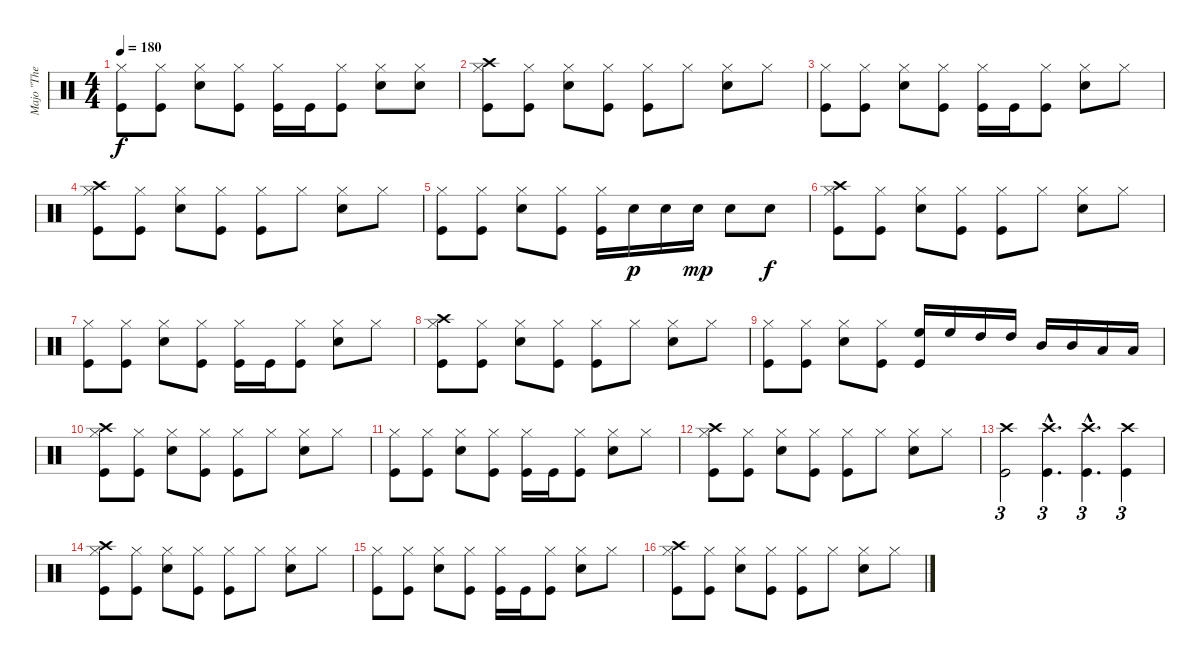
\track ("Majo \"The Dremmel\" Hirt" "Majo \"The ") {instrument percussion}
\staff {score}
\articulation defaults
\ts (4 4)
\tempo 180
\clef neutral
\ks c
("Hi-Hat (closed)" "Kick (hit)").8{dy f} ("Hi-Hat (closed)" "Kick (hit)").8 ("Hi-Hat (closed)" "Electric Snare (hit)").8 ("Hi-Hat (closed)" "Kick (hit)").8 ("Hi-Hat (closed)" "Kick (hit)").16 "Kick (hit)".16 ("Hi-Hat (closed)" "Kick (hit)").8 ("Hi-Hat (closed)" "Electric Snare (hit)").8 ("Hi-Hat (closed)" "Electric Snare (hit)").8 |
("Crash high (hit)" "Hi-Hat (closed)" "Kick (hit)").8 ("Hi-Hat (closed)" "Kick (hit)").8 ("Hi-Hat (closed)" "Electric Snare (hit)").8 ("Hi-Hat (closed)" "Kick (hit)").8 ("Hi-Hat (closed)" "Kick (hit)").8 "Hi-Hat (closed)".8 ("Hi-Hat (closed)" "Electric Snare (hit)").8 "Hi-Hat (closed)".8 |
("Hi-Hat (closed)" "Kick (hit)").8 ("Hi-Hat (closed)" "Kick (hit)").8 ("Hi-Hat (closed)" "Electric Snare (hit)").8 ("Hi-Hat (closed)" "Kick (hit)").8 ("Hi-Hat (closed)" "Kick (hit)").16 "Kick (hit)".16 ("Hi-Hat (closed)" "Kick (hit)").8 ("Hi-Hat (closed)" "Electric Snare (hit)").8 "Hi-Hat (closed)".8 |
("Crash high (hit)" "Hi-Hat (closed)" "Kick (hit)").8 ("Hi-Hat (closed)" "Kick (hit)").8 ("Hi-Hat (closed)" "Electric Snare (hit)").8 ("Hi-Hat (closed)" "Kick (hit)").8 ("Hi-Hat (closed)" "Kick (hit)").8 "Hi-Hat (closed)".8 ("Hi-Hat (closed)" "Electric Snare (hit)").8 "Hi-Hat (closed)".8 |
("Hi-Hat (closed)" "Kick (hit)").8 ("Hi-Hat (closed)" "Kick (hit)").8 ("Hi-Hat (closed)" "Electric Snare (hit)").8 ("Hi-Hat (closed)" "Kick (hit)").8 ("Hi-Hat (closed)" "Kick (hit)").16 "Electric Snare (hit)".16{dy p} "Electric Snare (hit)".16 "Electric Snare (hit)".16{dy mp} "Electric Snare (hit)".8 "Electric Snare (hit)".8{dy f} |
("Crash high (hit)" "Hi-Hat (closed)" "Kick (hit)").8 ("Hi-Hat (closed)" "Kick (hit)").8 ("Hi-Hat (closed)" "Electric Snare (hit)").8 ("Hi-Hat (closed)" "Kick (hit)").8 ("Hi-Hat (closed)" "Kick (hit)").8 "Hi-Hat (closed)".8 ("Hi-Hat (closed)" "Electric Snare (hit)").8 "Hi-Hat (closed)".8 |
("Hi-Hat (closed)" "Kick (hit)").8 ("Hi-Hat (closed)" "Kick (hit)").8 ("Hi-Hat (closed)" "Electric Snare (hit)").8 ("Hi-Hat (closed)" "Kick (hit)").8 ("Hi-Hat (closed)" "Kick (hit)").16 "Kick (hit)".16 ("Hi-Hat (closed)" "Kick (hit)").8 ("Hi-Hat (closed)" "Electric Snare (hit)").8 "Hi-Hat (closed)".8 |
("Crash high (hit)" "Hi-Hat (closed)" "Kick (hit)").8 ("Hi-Hat (closed)" "Kick (hit)").8 ("Hi-Hat (closed)" "Electric Snare (hit)").8 ("Hi-Hat (closed)" "Kick (hit)").8 ("Hi-Hat (closed)" "Kick (hit)").8 "Hi-Hat (closed)".8 ("Hi-Hat (closed)" "Electric Snare (hit)").8 "Hi-Hat (closed)".8 |
("Hi-Hat (closed)" "Kick (hit)").8 ("Hi-Hat (closed)" "Kick (hit)").8 ("Hi-Hat (closed)" "Electric Snare (hit)").8 ("Hi-Hat (closed)" "Kick (hit)").8 ("High Floor Tom (hit)" "Kick (hit)").16 "High Floor Tom (hit)".16 "High Tom (hit)".16 "High Tom (hit)".16 "Mid Tom (hit)".16 "Mid Tom (hit)".16 "Low Tom (hit)".16 "Low Tom (hit)".16 |
("Crash high (hit)" "Hi-Hat (closed)" "Kick (hit)").8 ("Hi-Hat (closed)" "Kick (hit)").8 ("Hi-Hat (closed)" "Electric Snare (hit)").8 ("Hi-Hat (closed)" "Kick (hit)").8 ("Hi-Hat (closed)" "Kick (hit)").8 "Hi-Hat (closed)".8 ("Hi-Hat (closed)" "Electric Snare (hit)").8 "Hi-Hat (closed)".8 |
("Hi-Hat (closed)" "Kick (hit)").8 ("Hi-Hat (closed)" "Kick (hit)").8 ("Hi-Hat (closed)" "Electric Snare (hit)").8 ("Hi-Hat (closed)" "Kick (hit)").8 ("Hi-Hat (closed)" "Kick (hit)").16 "Kick (hit)".16 ("Hi-Hat (closed)" "Kick (hit)").8 ("Hi-Hat (closed)" "Electric Snare (hit)").8 "Hi-Hat (closed)".8 |
("Crash high (hit)" "Hi-Hat (closed)" "Kick (hit)").8 ("Hi-Hat (closed)" "Kick (hit)").8 ("Hi-Hat (closed)" "Electric Snare (hit)").8 ("Hi-Hat (closed)" "Kick (hit)").8 ("Hi-Hat (closed)" "Kick (hit)").8 "Hi-Hat (closed)".8 ("Hi-Hat (closed)" "Electric Snare (hit)").8 "Hi-Hat (closed)".8 |
("Crash high (hit)" "Kick (hit)").2{tu (3 2)} ("Crash high (hit)"{hac} "Kick (hit)"{hac}).4{d tu (3 2)} ("Crash high (hit)"{hac} "Kick (hit)"{hac}).4{d tu (3 2)} ("Crash high (hit)" "Kick (hit)").4{tu (3 2)} |
("Crash high (hit)" "Hi-Hat (closed)" "Kick (hit)").8 ("Hi-Hat (closed)" "Kick (hit)").8 ("Hi-Hat (closed)" "Electric Snare (hit)").8 ("Hi-Hat (closed)" "Kick (hit)").8 ("Hi-Hat (closed)" "Kick (hit)").8 "Hi-Hat (closed)".8 ("Hi-Hat (closed)" "Electric Snare (hit)").8 "Hi-Hat (closed)".8 |
("Hi-Hat (closed)" "Kick (hit)").8 ("Hi-Hat (closed)" "Kick (hit)").8 ("Hi-Hat (closed)" "Electric Snare (hit)").8 ("Hi-Hat (closed)" "Kick (hit)").8 ("Hi-Hat (closed)" "Kick (hit)").16 "Kick (hit)".16 ("Hi-Hat (closed)" "Kick (hit)").8 ("Hi-Hat (closed)" "Electric Snare (hit)").8 "Hi-Hat (closed)".8 |
("Crash high (hit)" "Hi-Hat (closed)" "Kick (hit)").8 ("Hi-Hat (closed)" "Kick (hit)").8 ("Hi-Hat (closed)" "Electric Snare (hit)").8 ("Hi-Hat (closed)" "Kick (hit)").8 ("Hi-Hat (closed)" "Kick (hit)").8 "Hi-Hat (closed)".8 ("Hi-Hat (closed)" "Electric Snare (hit)").8 "Hi-Hat (closed)".8
